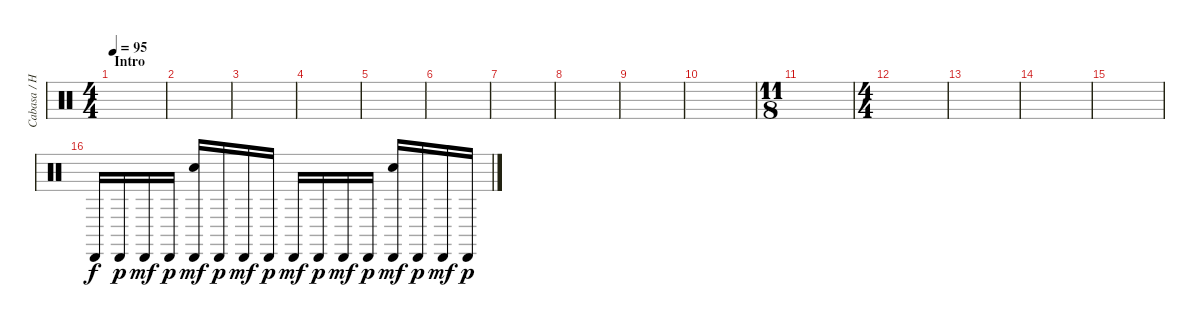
\track ("Cabasa / Hand Clap" "Cabasa / H") {instrument percussion}
\staff {score}
\articulation defaults
\ts (4 4)
\section ("" "Intro")
\tempo 95
\clef neutral
\ks aminor
|
|
|
|
|
|
|
|
|
|
\ts (11 8)
|
\ts (4 4)
|
|
|
|
"Cabasa (hit)".16 "Cabasa (hit)".16{dy p} "Cabasa (hit)".16{dy mf} "Cabasa (hit)".16{dy p} ("Hand Clap (hit)" "Cabasa (hit)").16{dy mf} "Cabasa (hit)".16{dy p} "Cabasa (hit)".16{dy mf} "Cabasa (hit)".16{dy p} "Cabasa (hit)".16{dy mf} "Cabasa (hit)".16{dy p} "Cabasa (hit)".16{dy mf} "Cabasa (hit)".16{dy p} ("Hand Clap (hit)" "Cabasa (hit)").16{dy mf} "Cabasa (hit)".16{dy p} "Cabasa (hit)".16{dy mf} "Cabasa (hit)".16{dy p}
